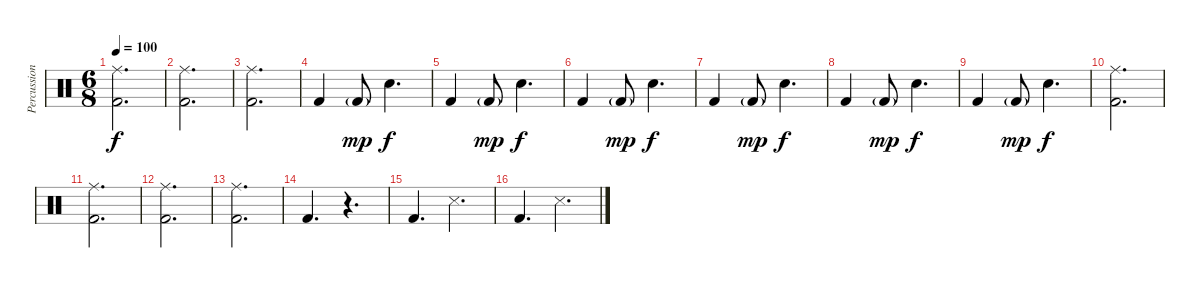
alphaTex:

\track ("Percussion" "Percussion") {instrument percussion}
\staff {score}
\articulation defaults
\ts (6 8)
\tempo 100
\clef neutral
\ks c
("Ride (middle)" "Kick (hit) 2").2{d dy f} |
("Ride (middle)" "Kick (hit) 2").2{d} |
("Ride (middle)" "Kick (hit) 2").2{d} |
"Kick (hit) 2".4 "Kick (hit) 2"{g}.8{dy mp} "Snare (hit) 2".4{d dy f} |
"Kick (hit) 2".4 "Kick (hit) 2"{g}.8{dy mp} "Snare (hit) 2".4{d dy f} |
"Kick (hit) 2".4 "Kick (hit) 2"{g}.8{dy mp} "Snare (hit) 2".4{d dy f} |
"Kick (hit) 2".4 "Kick (hit) 2"{g}.8{dy mp} "Snare (hit) 2".4{d dy f} |
"Kick (hit) 2".4 "Kick (hit) 2"{g}.8{dy mp} "Snare (hit) 2".4{d dy f} |
"Kick (hit) 2".4 "Kick (hit) 2"{g}.8{dy mp} "Snare (hit) 2".4{d dy f} |
("Ride (middle)" "Kick (hit) 2").2{d} |
("Ride (middle)" "Kick (hit) 2").2{d} |
("Ride (middle)" "Kick (hit) 2").2{d} |
("Ride (middle)" "Kick (hit) 2").2{d} |
"Kick (hit) 2".4{d} r.4{d} |
"Kick (hit) 2".4{d} "Snare (side stick) 3".4{d} |
"Kick (hit) 2".4{d} "Snare (side stick) 3".4{d}
